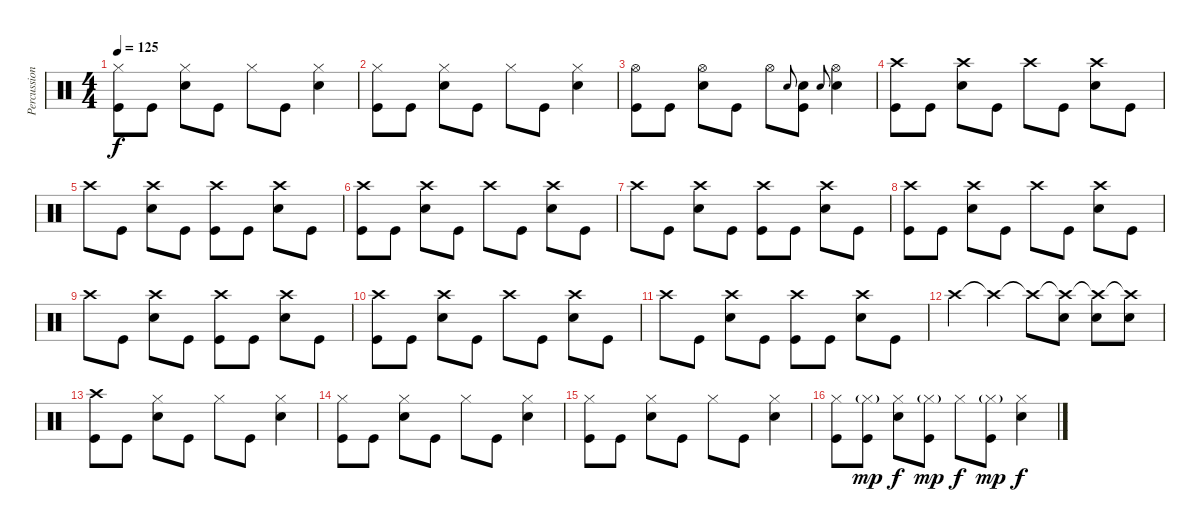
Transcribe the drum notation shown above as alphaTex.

\track ("Percussion" "Percussion") {instrument percussion}
\staff {score}
\articulation defaults
\ts (4 4)
\tempo 125
\clef neutral
\ks c
("Hi-Hat (closed)" "Kick (hit)").8{dy f} "Kick (hit)".8 ("Hi-Hat (closed)" "Snare (hit) 2").8 "Kick (hit)".8 "Hi-Hat (closed)".8 "Kick (hit)".8 ("Snare (hit) 2" "Hi-Hat (closed)").4 |
("Hi-Hat (closed)" "Kick (hit)").8 "Kick (hit)".8 ("Hi-Hat (closed)" "Snare (hit) 2").8 "Kick (hit)".8 "Hi-Hat (closed)".8 "Kick (hit)".8 ("Snare (hit) 2" "Hi-Hat (closed)").4 |
("Hi-Hat (open)" "Kick (hit)").8 "Kick (hit)".8 ("Hi-Hat (open)" "Snare (hit) 2").8 "Kick (hit)".8 "Hi-Hat (open)".8 "Snare (hit) 2".8{gr onbeat} ("Snare (hit) 2" "Kick (hit)").8 "Snare (hit) 2".8{gr onbeat} ("Hi-Hat (open)" "Snare (hit) 2").4 |
("Crash high (hit)" "Kick (hit)").8 "Kick (hit)".8 ("Crash high (hit)" "Snare (hit) 2").8 "Kick (hit)".8 "Crash high (hit)".8 "Kick (hit)".8 ("Snare (hit) 2" "Crash high (hit)").8 "Kick (hit)".8 |
"Crash high (hit)".8 "Kick (hit)".8 ("Crash high (hit)" "Snare (hit) 2").8 "Kick (hit)".8 ("Crash high (hit)" "Kick (hit)").8 "Kick (hit)".8 ("Snare (hit) 2" "Crash high (hit)").8 "Kick (hit)".8 |
("Crash high (hit)" "Kick (hit)").8 "Kick (hit)".8 ("Crash high (hit)" "Snare (hit) 2").8 "Kick (hit)".8 "Crash high (hit)".8 "Kick (hit)".8 ("Snare (hit) 2" "Crash high (hit)").8 "Kick (hit)".8 |
"Crash high (hit)".8 "Kick (hit)".8 ("Crash high (hit)" "Snare (hit) 2").8 "Kick (hit)".8 ("Crash high (hit)" "Kick (hit)").8 "Kick (hit)".8 ("Snare (hit) 2" "Crash high (hit)").8 "Kick (hit)".8 |
("Crash high (hit)" "Kick (hit)").8 "Kick (hit)".8 ("Crash high (hit)" "Snare (hit) 2").8 "Kick (hit)".8 "Crash high (hit)".8 "Kick (hit)".8 ("Snare (hit) 2" "Crash high (hit)").8 "Kick (hit)".8 |
"Crash high (hit)".8 "Kick (hit)".8 ("Crash high (hit)" "Snare (hit) 2").8 "Kick (hit)".8 ("Crash high (hit)" "Kick (hit)").8 "Kick (hit)".8 ("Snare (hit) 2" "Crash high (hit)").8 "Kick (hit)".8 |
("Crash high (hit)" "Kick (hit)").8 "Kick (hit)".8 ("Crash high (hit)" "Snare (hit) 2").8 "Kick (hit)".8 "Crash high (hit)".8 "Kick (hit)".8 ("Snare (hit) 2" "Crash high (hit)").8 "Kick (hit)".8 |
"Crash high (hit)".8 "Kick (hit)".8 ("Crash high (hit)" "Snare (hit) 2").8 "Kick (hit)".8 ("Crash high (hit)" "Kick (hit)").8 "Kick (hit)".8 ("Snare (hit) 2" "Crash high (hit)").8 "Kick (hit)".8 |
"Crash high (hit)".4 "Crash high (hit)"{t}.4 "Crash high (hit)"{t}.8 ("Crash high (hit)"{t} "Snare (hit) 2").8 ("Crash high (hit)"{t} "Snare (hit) 2").8 ("Crash high (hit)"{t} "Snare (hit) 2").8 |
("Crash high (hit)" "Kick (hit)").8 "Kick (hit)".8 ("Hi-Hat (closed)" "Snare (hit) 2").8 "Kick (hit)".8 "Hi-Hat (closed)".8 "Kick (hit)".8 ("Snare (hit) 2" "Hi-Hat (closed)").4 |
("Hi-Hat (closed)" "Kick (hit)").8 "Kick (hit)".8 ("Hi-Hat (closed)" "Snare (hit) 2").8 "Kick (hit)".8 "Hi-Hat (closed)".8 "Kick (hit)".8 ("Snare (hit) 2" "Hi-Hat (closed)").4 |
("Hi-Hat (closed)" "Kick (hit)").8 "Kick (hit)".8 ("Hi-Hat (closed)" "Snare (hit) 2").8 "Kick (hit)".8 "Hi-Hat (closed)".8 "Kick (hit)".8 ("Snare (hit) 2" "Hi-Hat (closed)").4 |
("Hi-Hat (closed)" "Kick (hit)").8 ("Hi-Hat (closed)"{g} "Kick (hit)").8{dy mp} ("Hi-Hat (closed)" "Snare (hit) 2").8{dy f} ("Hi-Hat (closed)"{g} "Kick (hit)").8{dy mp} "Hi-Hat (closed)".8{dy f} ("Hi-Hat (closed)"{g} "Kick (hit)").8{dy mp} ("Snare (hit) 2" "Hi-Hat (closed)").4{dy f}
